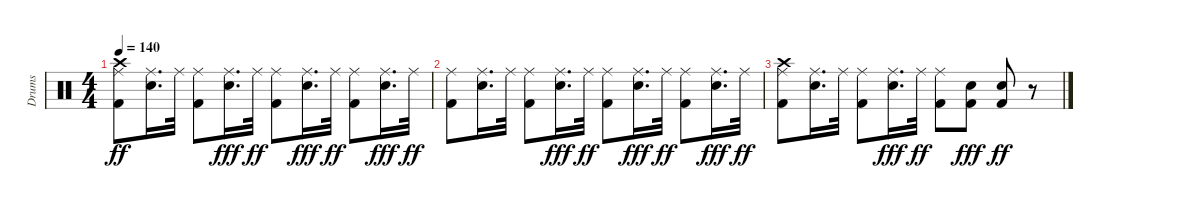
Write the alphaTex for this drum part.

\track ("Drums" "Drums") {instrument percussion}
\staff {score}
\articulation defaults
\ts (4 4)
\tempo 140
\clef neutral
\ks c
("Kick (hit) 2" "Crash high (hit)" "Ride (middle)").8{dy ff} ("Ride (middle)" "Snare (hit) 2").16{d} "Ride (middle)".32 ("Kick (hit) 2" "Ride (middle)").8 ("Ride (middle)" "Snare (hit) 2").16{d dy fff} "Ride (middle)".32{dy ff} ("Kick (hit) 2" "Ride (middle)").8 ("Ride (middle)" "Snare (hit) 2").16{d dy fff} "Ride (middle)".32{dy ff} ("Kick (hit) 2" "Ride (middle)").8 ("Ride (middle)" "Snare (hit) 2").16{d dy fff} "Ride (middle)".32{dy ff} |
("Kick (hit) 2" "Ride (middle)").8 ("Ride (middle)" "Snare (hit) 2").16{d} "Ride (middle)".32 ("Kick (hit) 2" "Ride (middle)").8 ("Ride (middle)" "Snare (hit) 2").16{d dy fff} "Ride (middle)".32{dy ff} ("Kick (hit) 2" "Ride (middle)").8 ("Ride (middle)" "Snare (hit) 2").16{d dy fff} "Ride (middle)".32{dy ff} ("Kick (hit) 2" "Ride (middle)").8 ("Ride (middle)" "Snare (hit) 2").16{d dy fff} "Ride (middle)".32{dy ff} |
("Kick (hit) 2" "Crash high (hit)" "Ride (middle)").8 ("Ride (middle)" "Snare (hit) 2").16{d} "Ride (middle)".32 ("Kick (hit) 2" "Ride (middle)").8 ("Ride (middle)" "Snare (hit) 2").16{d dy fff} "Ride (middle)".32{dy ff} ("Kick (hit) 2" "Ride (middle)").8 ("Kick (hit) 2" "Snare (hit) 2").8{dy fff} ("Kick (hit) 2" "Snare (hit) 2").8{dy ff} r.8
